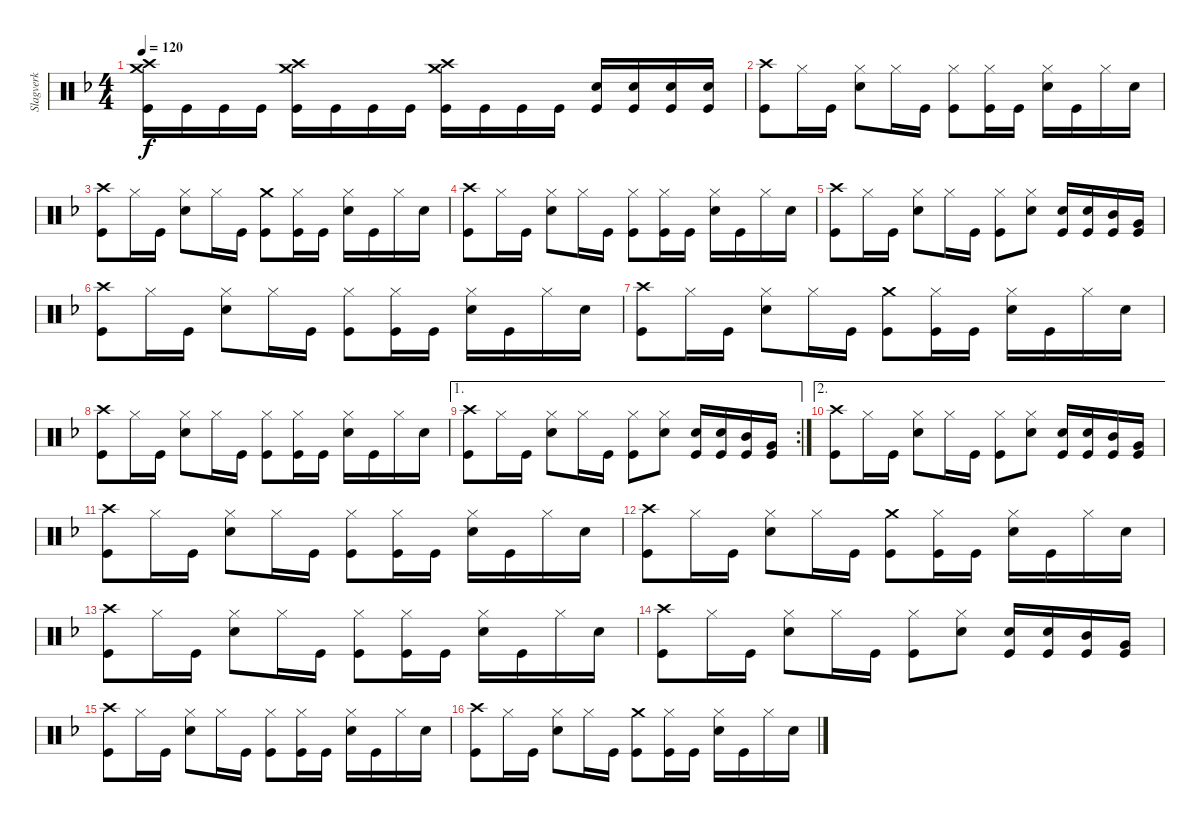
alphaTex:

\track ("Slagverk" "Slagverk") {instrument percussion}
\staff {score}
\articulation defaults
\ts (4 4)
\tempo 120
\clef neutral
\ks dminor
("Crash medium (hit)" "Crash high (hit)" "Kick (hit)").16{dy f} "Kick (hit)".16 "Kick (hit)".16 "Kick (hit)".16 ("Crash medium (hit)" "Crash high (hit)" "Kick (hit)").16 "Kick (hit)".16 "Kick (hit)".16 "Kick (hit)".16 ("Crash medium (hit)" "Crash high (hit)" "Kick (hit)").16 "Kick (hit)".16 "Kick (hit)".16 "Kick (hit)".16 ("Snare (hit) 2" "Kick (hit)").16 ("Snare (hit) 2" "Kick (hit)").16 ("Snare (hit) 2" "Kick (hit)").16 ("Snare (hit) 2" "Kick (hit)").16 |
("Crash high (hit)" "Kick (hit)").8 "Hi-Hat (closed)".16 "Kick (hit)".16 ("Hi-Hat (closed)" "Snare (hit) 2").8 "Hi-Hat (closed)".16 "Kick (hit)".16 ("Hi-Hat (closed)" "Kick (hit)").8 ("Hi-Hat (closed)" "Kick (hit)").16 "Kick (hit)".16 ("Hi-Hat (closed)" "Snare (hit) 2").16 "Kick (hit)".16 "Hi-Hat (closed)".16 "Snare (hit) 2".16 |
("Crash high (hit)" "Kick (hit)").8 "Hi-Hat (closed)".16 "Kick (hit)".16 ("Hi-Hat (closed)" "Snare (hit) 2").8 "Hi-Hat (closed)".16 "Kick (hit)".16 ("Crash medium (hit)" "Kick (hit)").8 ("Hi-Hat (closed)" "Kick (hit)").16 "Kick (hit)".16 ("Hi-Hat (closed)" "Snare (hit) 2").16 "Kick (hit)".16 "Hi-Hat (closed)".16 "Snare (hit) 2".16 |
("Crash high (hit)" "Kick (hit)").8 "Hi-Hat (closed)".16 "Kick (hit)".16 ("Hi-Hat (closed)" "Snare (hit) 2").8 "Hi-Hat (closed)".16 "Kick (hit)".16 ("Hi-Hat (closed)" "Kick (hit)").8 ("Hi-Hat (closed)" "Kick (hit)").16 "Kick (hit)".16 ("Hi-Hat (closed)" "Snare (hit) 2").16 "Kick (hit)".16 "Hi-Hat (closed)".16 "Snare (hit) 2".16 |
("Crash high (hit)" "Kick (hit)").8 "Hi-Hat (closed)".16 "Kick (hit)".16 ("Hi-Hat (closed)" "Snare (hit) 2").8 "Hi-Hat (closed)".16 "Kick (hit)".16 ("Hi-Hat (closed)" "Kick (hit)").8 ("Hi-Hat (closed)" "Snare (hit) 2").8 ("Snare (hit) 2" "Kick (hit)").16 ("Snare (hit) 2" "Kick (hit)").16 ("Mid Tom (hit)" "Kick (hit)").16 ("Very Low Tom (hit)" "Kick (hit)").16 |
("Crash high (hit)" "Kick (hit)").8 "Hi-Hat (closed)".16 "Kick (hit)".16 ("Hi-Hat (closed)" "Snare (hit) 2").8 "Hi-Hat (closed)".16 "Kick (hit)".16 ("Hi-Hat (closed)" "Kick (hit)").8 ("Hi-Hat (closed)" "Kick (hit)").16 "Kick (hit)".16 ("Hi-Hat (closed)" "Snare (hit) 2").16 "Kick (hit)".16 "Hi-Hat (closed)".16 "Snare (hit) 2".16 |
("Crash high (hit)" "Kick (hit)").8 "Hi-Hat (closed)".16 "Kick (hit)".16 ("Hi-Hat (closed)" "Snare (hit) 2").8 "Hi-Hat (closed)".16 "Kick (hit)".16 ("Crash medium (hit)" "Kick (hit)").8 ("Hi-Hat (closed)" "Kick (hit)").16 "Kick (hit)".16 ("Hi-Hat (closed)" "Snare (hit) 2").16 "Kick (hit)".16 "Hi-Hat (closed)".16 "Snare (hit) 2".16 |
("Crash high (hit)" "Kick (hit)").8 "Hi-Hat (closed)".16 "Kick (hit)".16 ("Hi-Hat (closed)" "Snare (hit) 2").8 "Hi-Hat (closed)".16 "Kick (hit)".16 ("Hi-Hat (closed)" "Kick (hit)").8 ("Hi-Hat (closed)" "Kick (hit)").16 "Kick (hit)".16 ("Hi-Hat (closed)" "Snare (hit) 2").16 "Kick (hit)".16 "Hi-Hat (closed)".16 "Snare (hit) 2".16 |
\ae 1
\rc 2
("Crash high (hit)" "Kick (hit)").8 "Hi-Hat (closed)".16 "Kick (hit)".16 ("Hi-Hat (closed)" "Snare (hit) 2").8 "Hi-Hat (closed)".16 "Kick (hit)".16 ("Hi-Hat (closed)" "Kick (hit)").8 ("Hi-Hat (closed)" "Snare (hit) 2").8 ("Snare (hit) 2" "Kick (hit)").16 ("Snare (hit) 2" "Kick (hit)").16 ("Mid Tom (hit)" "Kick (hit)").16 ("Very Low Tom (hit)" "Kick (hit)").16 |
\ae 2
("Crash high (hit)" "Kick (hit)").8 "Hi-Hat (closed)".16 "Kick (hit)".16 ("Hi-Hat (closed)" "Snare (hit) 2").8 "Hi-Hat (closed)".16 "Kick (hit)".16 ("Hi-Hat (closed)" "Kick (hit)").8 ("Hi-Hat (closed)" "Snare (hit) 2").8 ("Snare (hit) 2" "Kick (hit)").16 ("Snare (hit) 2" "Kick (hit)").16 ("Mid Tom (hit)" "Kick (hit)").16 ("Very Low Tom (hit)" "Kick (hit)").16 |
("Crash high (hit)" "Kick (hit)").8 "Hi-Hat (closed)".16 "Kick (hit)".16 ("Hi-Hat (closed)" "Snare (hit) 2").8 "Hi-Hat (closed)".16 "Kick (hit)".16 ("Hi-Hat (closed)" "Kick (hit)").8 ("Hi-Hat (closed)" "Kick (hit)").16 "Kick (hit)".16 ("Hi-Hat (closed)" "Snare (hit) 2").16 "Kick (hit)".16 "Hi-Hat (closed)".16 "Snare (hit) 2".16 |
("Crash high (hit)" "Kick (hit)").8 "Hi-Hat (closed)".16 "Kick (hit)".16 ("Hi-Hat (closed)" "Snare (hit) 2").8 "Hi-Hat (closed)".16 "Kick (hit)".16 ("Crash medium (hit)" "Kick (hit)").8 ("Hi-Hat (closed)" "Kick (hit)").16 "Kick (hit)".16 ("Hi-Hat (closed)" "Snare (hit) 2").16 "Kick (hit)".16 "Hi-Hat (closed)".16 "Snare (hit) 2".16 |
("Crash high (hit)" "Kick (hit)").8 "Hi-Hat (closed)".16 "Kick (hit)".16 ("Hi-Hat (closed)" "Snare (hit) 2").8 "Hi-Hat (closed)".16 "Kick (hit)".16 ("Hi-Hat (closed)" "Kick (hit)").8 ("Hi-Hat (closed)" "Kick (hit)").16 "Kick (hit)".16 ("Hi-Hat (closed)" "Snare (hit) 2").16 "Kick (hit)".16 "Hi-Hat (closed)".16 "Snare (hit) 2".16 |
("Crash high (hit)" "Kick (hit)").8 "Hi-Hat (closed)".16 "Kick (hit)".16 ("Hi-Hat (closed)" "Snare (hit) 2").8 "Hi-Hat (closed)".16 "Kick (hit)".16 ("Hi-Hat (closed)" "Kick (hit)").8 ("Hi-Hat (closed)" "Snare (hit) 2").8 ("Snare (hit) 2" "Kick (hit)").16 ("Snare (hit) 2" "Kick (hit)").16 ("Mid Tom (hit)" "Kick (hit)").16 ("Very Low Tom (hit)" "Kick (hit)").16 |
("Crash high (hit)" "Kick (hit)").8 "Hi-Hat (closed)".16 "Kick (hit)".16 ("Hi-Hat (closed)" "Snare (hit) 2").8 "Hi-Hat (closed)".16 "Kick (hit)".16 ("Hi-Hat (closed)" "Kick (hit)").8 ("Hi-Hat (closed)" "Kick (hit)").16 "Kick (hit)".16 ("Hi-Hat (closed)" "Snare (hit) 2").16 "Kick (hit)".16 "Hi-Hat (closed)".16 "Snare (hit) 2".16 |
("Crash high (hit)" "Kick (hit)").8 "Hi-Hat (closed)".16 "Kick (hit)".16 ("Hi-Hat (closed)" "Snare (hit) 2").8 "Hi-Hat (closed)".16 "Kick (hit)".16 ("Crash medium (hit)" "Kick (hit)").8 ("Hi-Hat (closed)" "Kick (hit)").16 "Kick (hit)".16 ("Hi-Hat (closed)" "Snare (hit) 2").16 "Kick (hit)".16 "Hi-Hat (closed)".16 "Snare (hit) 2".16
